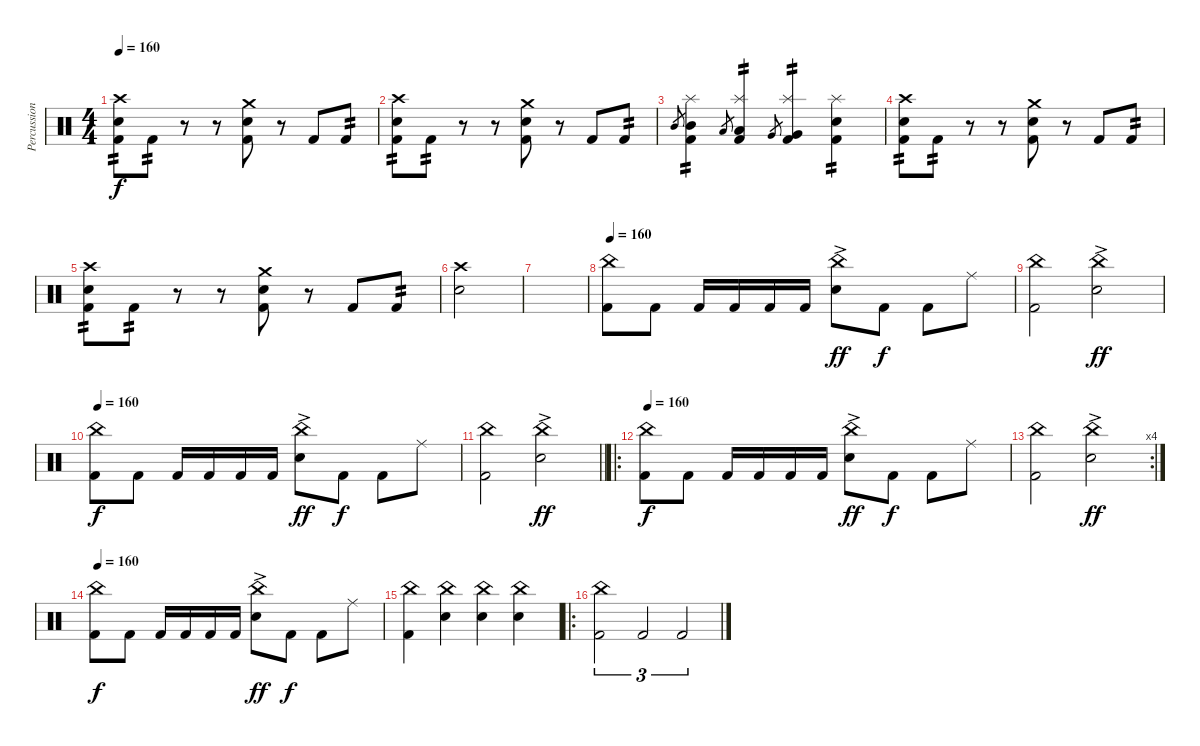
\track ("Percussion" "Percussion") {instrument percussion}
\staff {score}
\articulation defaults
\ts (4 4)
\tempo 160
\clef neutral
\ks c
("Crash high (hit)" "Snare (hit) 2" "Kick (hit) 2").8{tp 2 dy f} "Kick (hit) 2".8{tp 2} r.8 r.8 ("Crash medium (hit)" "Snare (hit) 2" "Kick (hit) 2").8 r.8 "Kick (hit) 2".8 "Kick (hit) 2".8{tp 2} |
("Crash high (hit)" "Snare (hit) 2" "Kick (hit) 2").8{tp 2} "Kick (hit) 2".8{tp 2} r.8 r.8 ("Crash medium (hit)" "Snare (hit) 2" "Kick (hit) 2").8 r.8 "Kick (hit) 2".8 "Kick (hit) 2".8{tp 2} |
"Mid Tom (hit)".8{gr} ("Splash (hit)" "Kick (hit) 2" "Mid Tom (hit)").4{tp 2} "Low Tom (hit)".8{gr} ("Splash (hit)" "Kick (hit) 2" "Low Tom (hit)").4{tp 2} "Very Low Tom (hit)".8{gr} ("Splash (hit)" "Kick (hit) 2" "Very Low Tom (hit)").4{tp 2} ("Splash (hit)" "Snare (hit) 2" "Kick (hit) 2").4{tp 2} |
("Crash high (hit)" "Snare (hit) 2" "Kick (hit) 2").8{tp 2} "Kick (hit) 2".8{tp 2} r.8 r.8 ("Crash medium (hit)" "Snare (hit) 2" "Kick (hit) 2").8 r.8 "Kick (hit) 2".8 "Kick (hit) 2".8{tp 2} |
("Crash high (hit)" "Snare (hit) 2" "Kick (hit) 2").8{tp 2} "Kick (hit) 2".8{tp 2} r.8 r.8 ("Crash medium (hit)" "Snare (hit) 2" "Kick (hit) 2").8 r.8 "Kick (hit) 2".8 "Kick (hit) 2".8{tp 2} |
("Snare (hit) 2" "Crash high (hit)").2 |
|
\tempo 160
("China (hit)" "Kick (hit) 2").8 "Kick (hit) 2".8 "Kick (hit) 2".16 "Kick (hit) 2".16 "Kick (hit) 2".16 "Kick (hit) 2".16 ("China (hit)" "Snare (hit) 2"{ac}).8{dy ff} "Kick (hit) 2".8{dy f} "Kick (hit) 2".8 "Ride (middle)".8 |
("China (hit)" "Kick (hit) 2").2 ("China (hit)" "Snare (hit) 2"{ac}).2{dy ff} |
\tempo 160
("China (hit)" "Kick (hit) 2").8{dy f} "Kick (hit) 2".8 "Kick (hit) 2".16 "Kick (hit) 2".16 "Kick (hit) 2".16 "Kick (hit) 2".16 ("China (hit)" "Snare (hit) 2"{ac}).8{dy ff} "Kick (hit) 2".8{dy f} "Kick (hit) 2".8 "Ride (middle)".8 |
\barLineRight lightlight
("China (hit)" "Kick (hit) 2").2 ("China (hit)" "Snare (hit) 2"{ac}).2{dy ff} |
\ro
\tempo 160
("China (hit)" "Kick (hit) 2").8{dy f} "Kick (hit) 2".8 "Kick (hit) 2".16 "Kick (hit) 2".16 "Kick (hit) 2".16 "Kick (hit) 2".16 ("China (hit)" "Snare (hit) 2"{ac}).8{dy ff} "Kick (hit) 2".8{dy f} "Kick (hit) 2".8 "Ride (middle)".8 |
\rc 4
("China (hit)" "Kick (hit) 2").2 ("China (hit)" "Snare (hit) 2"{ac}).2{dy ff} |
\tempo 160
("China (hit)" "Kick (hit) 2").8{dy f} "Kick (hit) 2".8 "Kick (hit) 2".16 "Kick (hit) 2".16 "Kick (hit) 2".16 "Kick (hit) 2".16 ("China (hit)" "Snare (hit) 2"{ac}).8{dy ff} "Kick (hit) 2".8{dy f} "Kick (hit) 2".8 "Ride (middle)".8 |
("China (hit)" "Kick (hit) 2").4 ("China (hit)" "Snare (hit) 2").4 ("China (hit)" "Snare (hit) 2").4 ("Snare (hit) 2" "China (hit)").4 |
\ro
("China (hit)" "Kick (hit) 2").2{tu (3 2)} "Kick (hit) 2".2{tu (3 2)} "Kick (hit) 2".2{tu (3 2)}
